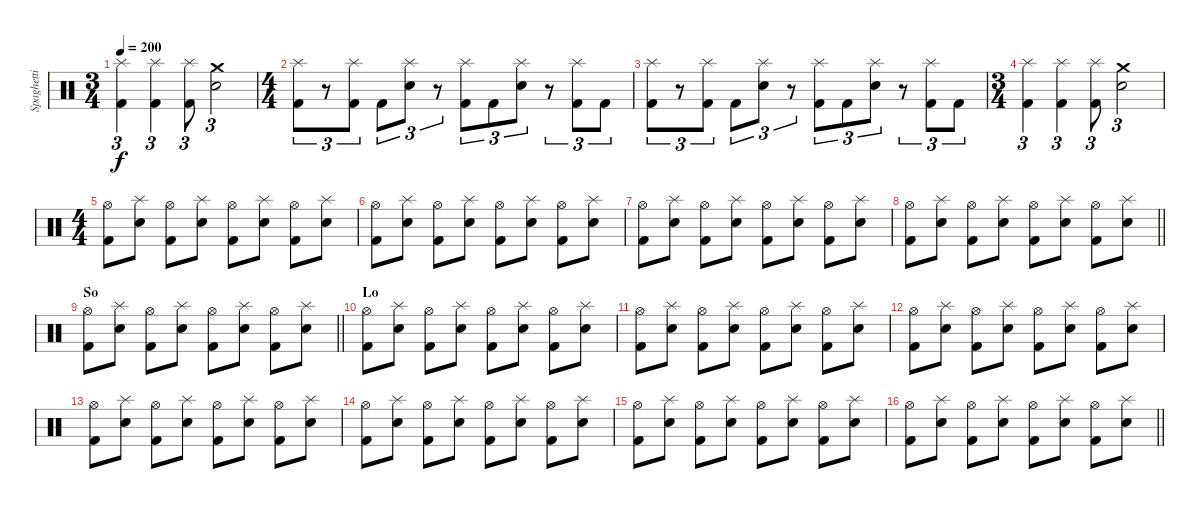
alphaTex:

\track ("Spaghetti" "Spaghetti") {instrument percussion}
\staff {score}
\articulation defaults
\ts (3 4)
\tempo 200
\clef neutral
\ks c
("Splash (hit)" "Kick (hit) 2").4{tu (3 2) dy f} ("Splash (hit)" "Kick (hit) 2").4{tu (3 2)} ("Splash (hit)" "Kick (hit) 2").8{tu (3 2)} ("Crash medium (hit)" "Snare (hit) 2").2{tu (3 2)} |
\ts (4 4)
("Splash (hit)" "Kick (hit) 2").8{tu (3 2)} r.8{tu (3 2)} ("Splash (hit)" "Kick (hit) 2").8{tu (3 2)} "Kick (hit) 2".8{tu (3 2)} ("Splash (hit)" "Snare (hit) 2").8{tu (3 2)} r.8{tu (3 2)} ("Splash (hit)" "Kick (hit) 2").8{tu (3 2)} "Kick (hit) 2".8{tu (3 2)} ("Splash (hit)" "Snare (hit) 2").8{tu (3 2)} r.8{tu (3 2)} ("Splash (hit)" "Kick (hit) 2").8{tu (3 2)} "Kick (hit) 2".8{tu (3 2)} |
("Splash (hit)" "Kick (hit) 2").8{tu (3 2)} r.8{tu (3 2)} ("Splash (hit)" "Kick (hit) 2").8{tu (3 2)} "Kick (hit) 2".8{tu (3 2)} ("Splash (hit)" "Snare (hit) 2").8{tu (3 2)} r.8{tu (3 2)} ("Splash (hit)" "Kick (hit) 2").8{tu (3 2)} "Kick (hit) 2".8{tu (3 2)} ("Splash (hit)" "Snare (hit) 2").8{tu (3 2)} r.8{tu (3 2)} ("Splash (hit)" "Kick (hit) 2").8{tu (3 2)} "Kick (hit) 2".8{tu (3 2)} |
\ts (3 4)
("Splash (hit)" "Kick (hit) 2").4{tu (3 2)} ("Splash (hit)" "Kick (hit) 2").4{tu (3 2)} ("Splash (hit)" "Kick (hit) 2").8{tu (3 2)} ("Crash medium (hit)" "Snare (hit) 2").2{tu (3 2)} |
\ts (4 4)
("Hi-Hat (open)" "Kick (hit) 2").8 ("Splash (hit)" "Snare (hit) 2").8 ("Hi-Hat (open)" "Kick (hit) 2").8 ("Splash (hit)" "Snare (hit) 2").8 ("Hi-Hat (open)" "Kick (hit) 2").8 ("Splash (hit)" "Snare (hit) 2").8 ("Hi-Hat (open)" "Kick (hit) 2").8 ("Splash (hit)" "Snare (hit) 2").8 |
("Hi-Hat (open)" "Kick (hit) 2").8 ("Splash (hit)" "Snare (hit) 2").8 ("Hi-Hat (open)" "Kick (hit) 2").8 ("Splash (hit)" "Snare (hit) 2").8 ("Hi-Hat (open)" "Kick (hit) 2").8 ("Splash (hit)" "Snare (hit) 2").8 ("Hi-Hat (open)" "Kick (hit) 2").8 ("Splash (hit)" "Snare (hit) 2").8 |
("Hi-Hat (open)" "Kick (hit) 2").8 ("Splash (hit)" "Snare (hit) 2").8 ("Hi-Hat (open)" "Kick (hit) 2").8 ("Splash (hit)" "Snare (hit) 2").8 ("Hi-Hat (open)" "Kick (hit) 2").8 ("Splash (hit)" "Snare (hit) 2").8 ("Hi-Hat (open)" "Kick (hit) 2").8 ("Splash (hit)" "Snare (hit) 2").8 |
\barLineRight lightlight
("Hi-Hat (open)" "Kick (hit) 2").8 ("Splash (hit)" "Snare (hit) 2").8 ("Hi-Hat (open)" "Kick (hit) 2").8 ("Splash (hit)" "Snare (hit) 2").8 ("Hi-Hat (open)" "Kick (hit) 2").8 ("Splash (hit)" "Snare (hit) 2").8 ("Hi-Hat (open)" "Kick (hit) 2").8 ("Splash (hit)" "Snare (hit) 2").8 |
\section ("" "So")
\barLineRight lightlight
("Hi-Hat (open)" "Kick (hit) 2").8 ("Splash (hit)" "Snare (hit) 2").8 ("Hi-Hat (open)" "Kick (hit) 2").8 ("Splash (hit)" "Snare (hit) 2").8 ("Hi-Hat (open)" "Kick (hit) 2").8 ("Splash (hit)" "Snare (hit) 2").8 ("Hi-Hat (open)" "Kick (hit) 2").8 ("Splash (hit)" "Snare (hit) 2").8 |
\section ("" "Lo")
("Hi-Hat (open)" "Kick (hit) 2").8 ("Splash (hit)" "Snare (hit) 2").8 ("Hi-Hat (open)" "Kick (hit) 2").8 ("Splash (hit)" "Snare (hit) 2").8 ("Hi-Hat (open)" "Kick (hit) 2").8 ("Splash (hit)" "Snare (hit) 2").8 ("Hi-Hat (open)" "Kick (hit) 2").8 ("Splash (hit)" "Snare (hit) 2").8 |
("Hi-Hat (open)" "Kick (hit) 2").8 ("Splash (hit)" "Snare (hit) 2").8 ("Hi-Hat (open)" "Kick (hit) 2").8 ("Splash (hit)" "Snare (hit) 2").8 ("Hi-Hat (open)" "Kick (hit) 2").8 ("Splash (hit)" "Snare (hit) 2").8 ("Hi-Hat (open)" "Kick (hit) 2").8 ("Splash (hit)" "Snare (hit) 2").8 |
("Hi-Hat (open)" "Kick (hit) 2").8 ("Splash (hit)" "Snare (hit) 2").8 ("Hi-Hat (open)" "Kick (hit) 2").8 ("Splash (hit)" "Snare (hit) 2").8 ("Hi-Hat (open)" "Kick (hit) 2").8 ("Splash (hit)" "Snare (hit) 2").8 ("Hi-Hat (open)" "Kick (hit) 2").8 ("Splash (hit)" "Snare (hit) 2").8 |
("Hi-Hat (open)" "Kick (hit) 2").8 ("Splash (hit)" "Snare (hit) 2").8 ("Hi-Hat (open)" "Kick (hit) 2").8 ("Splash (hit)" "Snare (hit) 2").8 ("Hi-Hat (open)" "Kick (hit) 2").8 ("Splash (hit)" "Snare (hit) 2").8 ("Hi-Hat (open)" "Kick (hit) 2").8 ("Splash (hit)" "Snare (hit) 2").8 |
("Hi-Hat (open)" "Kick (hit) 2").8 ("Splash (hit)" "Snare (hit) 2").8 ("Hi-Hat (open)" "Kick (hit) 2").8 ("Splash (hit)" "Snare (hit) 2").8 ("Hi-Hat (open)" "Kick (hit) 2").8 ("Splash (hit)" "Snare (hit) 2").8 ("Hi-Hat (open)" "Kick (hit) 2").8 ("Splash (hit)" "Snare (hit) 2").8 |
("Hi-Hat (open)" "Kick (hit) 2").8 ("Splash (hit)" "Snare (hit) 2").8 ("Hi-Hat (open)" "Kick (hit) 2").8 ("Splash (hit)" "Snare (hit) 2").8 ("Hi-Hat (open)" "Kick (hit) 2").8 ("Splash (hit)" "Snare (hit) 2").8 ("Hi-Hat (open)" "Kick (hit) 2").8 ("Splash (hit)" "Snare (hit) 2").8 |
\barLineRight lightlight
("Hi-Hat (open)" "Kick (hit) 2").8 ("Splash (hit)" "Snare (hit) 2").8 ("Hi-Hat (open)" "Kick (hit) 2").8 ("Splash (hit)" "Snare (hit) 2").8 ("Hi-Hat (open)" "Kick (hit) 2").8 ("Splash (hit)" "Snare (hit) 2").8 ("Hi-Hat (open)" "Kick (hit) 2").8 ("Splash (hit)" "Snare (hit) 2").8
